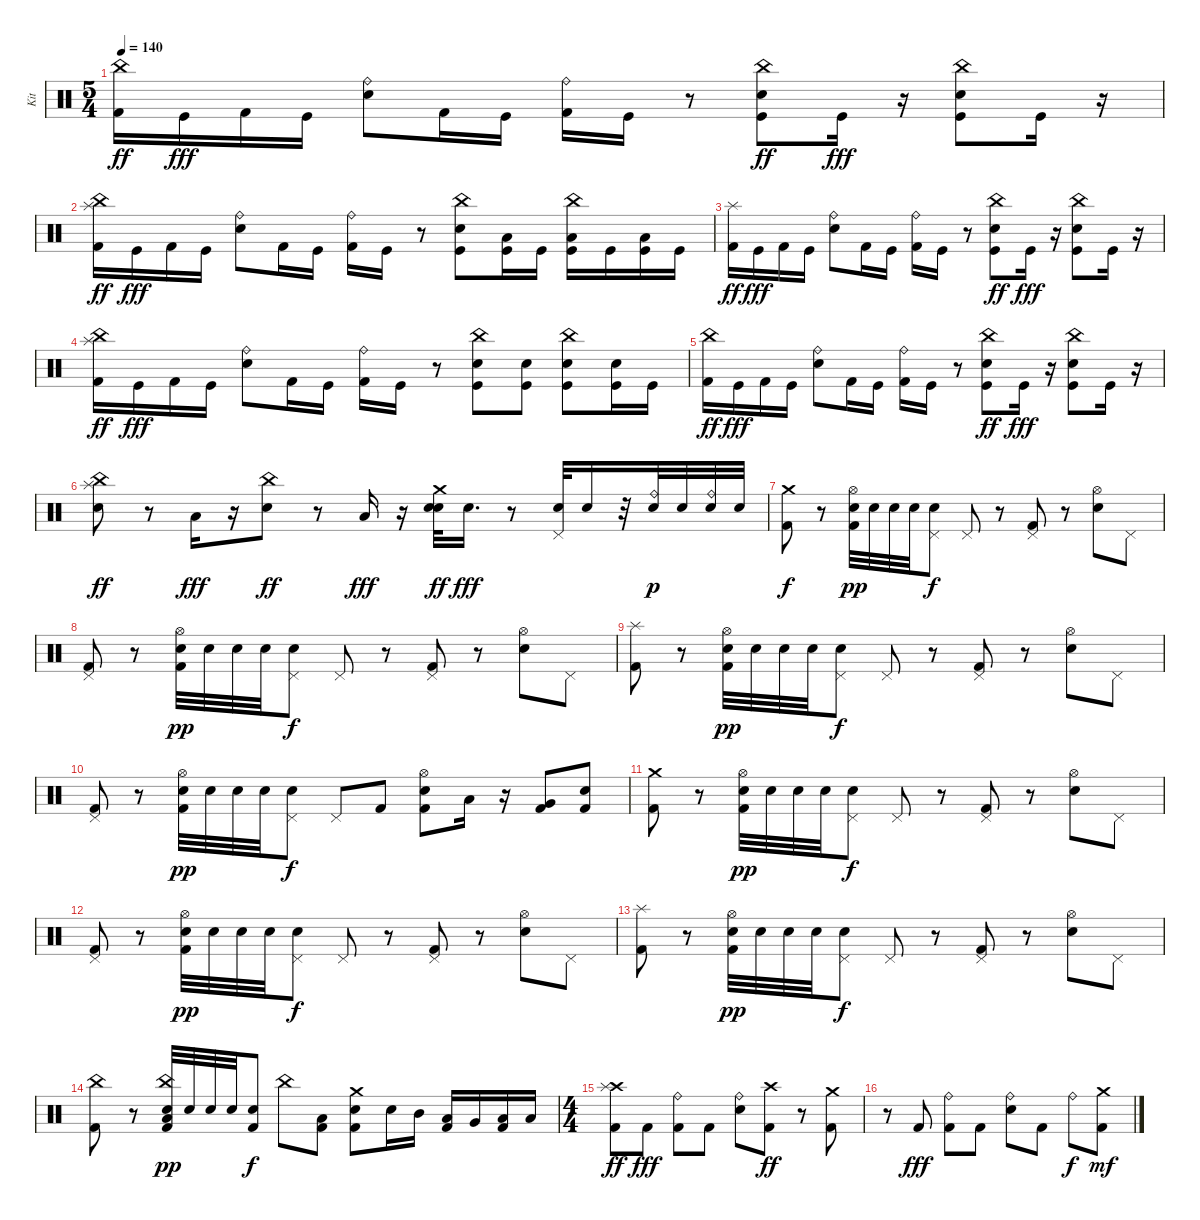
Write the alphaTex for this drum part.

\track ("Kit" "Kit") {instrument percussion}
\staff {score}
\articulation defaults
\ts (5 4)
\tempo 140
\clef neutral
\ks c
("Kick (hit) 2" "China (hit)").16{dy ff} "Kick (hit)".16{dy fff} "Kick (hit) 2".16 "Kick (hit)".16 ("Snare (hit) 2" "Ride (bell)").8 "Kick (hit) 2".16 "Kick (hit)".16 ("Kick (hit) 2" "Ride (bell)").16 "Kick (hit)".16 r.8 ("Kick (hit)" "Snare (hit) 2" "China (hit)").8{dy ff} "Kick (hit)".16{dy fff} r.16 ("Kick (hit)" "Snare (hit) 2" "China (hit)").8 "Kick (hit)".16 r.16 |
("Kick (hit) 2" "China (hit)" "Splash (hit)").16{dy ff} "Kick (hit)".16{dy fff} "Kick (hit) 2".16 "Kick (hit)".16 ("Snare (hit) 2" "Ride (bell)").8 "Kick (hit) 2".16 "Kick (hit)".16 ("Kick (hit) 2" "Ride (bell)").16 "Kick (hit)".16 r.8 ("Kick (hit)" "Snare (hit) 2" "China (hit)").8 ("Kick (hit)" "Low Floor Tom (hit)").16 "Kick (hit)".16 ("Kick (hit)" "Low Floor Tom (hit)" "China (hit)").16 "Kick (hit)".16 ("Kick (hit)" "Low Floor Tom (hit)").16 "Kick (hit)".16 |
("Kick (hit) 2" "Splash (hit)").16{dy ff} "Kick (hit)".16{dy fff} "Kick (hit) 2".16 "Kick (hit)".16 ("Snare (hit) 2" "Ride (bell)").8 "Kick (hit) 2".16 "Kick (hit)".16 ("Kick (hit) 2" "Ride (bell)").16 "Kick (hit)".16 r.8 ("Kick (hit)" "Snare (hit) 2" "China (hit)").8{dy ff} "Kick (hit)".16{dy fff} r.16 ("Kick (hit)" "Snare (hit) 2" "China (hit)").8 "Kick (hit)".16 r.16 |
("Kick (hit) 2" "China (hit)" "Splash (hit)").16{dy ff} "Kick (hit)".16{dy fff} "Kick (hit) 2".16 "Kick (hit)".16 ("Snare (hit) 2" "Ride (bell)").8 "Kick (hit) 2".16 "Kick (hit)".16 ("Kick (hit) 2" "Ride (bell)").16 "Kick (hit)".16 r.8 ("Kick (hit)" "Snare (hit) 2" "China (hit)").8 ("Kick (hit)" "Snare (hit) 2").8 ("Kick (hit)" "Snare (hit) 2" "China (hit)").8 ("Kick (hit)" "Snare (hit) 2").16 "Kick (hit)".16 |
("Kick (hit) 2" "China (hit)").16{dy ff} "Kick (hit)".16{dy fff} "Kick (hit) 2".16 "Kick (hit)".16 ("Snare (hit) 2" "Ride (bell)").8 "Kick (hit) 2".16 "Kick (hit)".16 ("Kick (hit) 2" "Ride (bell)").16 "Kick (hit)".16 r.8 ("Kick (hit)" "Snare (hit) 2" "China (hit)").8{dy ff} "Kick (hit)".16{dy fff} r.16 ("Kick (hit)" "Snare (hit) 2" "China (hit)").8 "Kick (hit)".16 r.16 |
("Snare (hit) 2" "China (hit)" "Splash (hit)").8{dy ff} r.8 "Low Floor Tom (hit)".16{dy fff} r.16 ("Snare (hit) 2" "China (hit)").8{dy ff} r.8 "Low Floor Tom (hit)".16{dy fff} r.16 ("Snare (hit) 2" "Snare (hit) 2" "Crash medium (hit)").32{dy ff} "Snare (hit) 2".16{d dy fff} r.8 ("Snare (hit) 2" "Pedal Hi-Hat (hit)").32 "Snare (hit) 2".16 r.32 ("Snare (hit) 2" "Ride (bell)").32{dy p} "Snare (hit) 2".32 ("Snare (hit) 2" "Ride (bell)").32 "Snare (hit) 2".32 |
("Kick (hit) 2" "Crash medium (hit)").8{dy f} r.8 ("Kick (hit) 2" "Snare (hit) 2" "Hi-Hat (open)").32{dy pp} "Snare (hit) 2".32 "Snare (hit) 2".32 "Snare (hit) 2".32 ("Snare (hit) 2" "Pedal Hi-Hat (hit)").8{dy f} "Pedal Hi-Hat (hit)".8 r.8 ("Kick (hit) 2" "Pedal Hi-Hat (hit)").8 r.8 ("Snare (hit) 2" "Hi-Hat (open)").8 "Pedal Hi-Hat (hit)".8 |
("Kick (hit) 2" "Pedal Hi-Hat (hit)").8 r.8 ("Kick (hit) 2" "Snare (hit) 2" "Hi-Hat (open)").32{dy pp} "Snare (hit) 2".32 "Snare (hit) 2".32 "Snare (hit) 2".32 ("Snare (hit) 2" "Pedal Hi-Hat (hit)").8{dy f} "Pedal Hi-Hat (hit)".8 r.8 ("Kick (hit) 2" "Pedal Hi-Hat (hit)").8 r.8 ("Snare (hit) 2" "Hi-Hat (open)").8 "Pedal Hi-Hat (hit)".8 |
("Kick (hit) 2" "Splash (hit)").8 r.8 ("Kick (hit) 2" "Snare (hit) 2" "Hi-Hat (open)").32{dy pp} "Snare (hit) 2".32 "Snare (hit) 2".32 "Snare (hit) 2".32 ("Snare (hit) 2" "Pedal Hi-Hat (hit)").8{dy f} "Pedal Hi-Hat (hit)".8 r.8 ("Kick (hit) 2" "Pedal Hi-Hat (hit)").8 r.8 ("Snare (hit) 2" "Hi-Hat (open)").8 "Pedal Hi-Hat (hit)".8 |
("Kick (hit) 2" "Pedal Hi-Hat (hit)").8 r.8 ("Kick (hit) 2" "Snare (hit) 2" "Hi-Hat (open)").32{dy pp} "Snare (hit) 2".32 "Snare (hit) 2".32 "Snare (hit) 2".32 ("Snare (hit) 2" "Pedal Hi-Hat (hit)").8{dy f} "Pedal Hi-Hat (hit)".8 "Kick (hit) 2".8 ("Kick (hit) 2" "Snare (hit) 2" "Hi-Hat (open)").8 "Low Tom (hit)".16 r.16 ("Kick (hit) 2" "Very Low Tom (hit)").8 ("Kick (hit) 2" "Snare (hit) 2").8 |
("Kick (hit) 2" "Crash medium (hit)").8 r.8 ("Kick (hit) 2" "Snare (hit) 2" "Hi-Hat (open)").32{dy pp} "Snare (hit) 2".32 "Snare (hit) 2".32 "Snare (hit) 2".32 ("Snare (hit) 2" "Pedal Hi-Hat (hit)").8{dy f} "Pedal Hi-Hat (hit)".8 r.8 ("Kick (hit) 2" "Pedal Hi-Hat (hit)").8 r.8 ("Snare (hit) 2" "Hi-Hat (open)").8 "Pedal Hi-Hat (hit)".8 |
("Kick (hit) 2" "Pedal Hi-Hat (hit)").8 r.8 ("Kick (hit) 2" "Snare (hit) 2" "Hi-Hat (open)").32{dy pp} "Snare (hit) 2".32 "Snare (hit) 2".32 "Snare (hit) 2".32 ("Snare (hit) 2" "Pedal Hi-Hat (hit)").8{dy f} "Pedal Hi-Hat (hit)".8 r.8 ("Kick (hit) 2" "Pedal Hi-Hat (hit)").8 r.8 ("Snare (hit) 2" "Hi-Hat (open)").8 "Pedal Hi-Hat (hit)".8 |
("Kick (hit) 2" "Splash (hit)").8 r.8 ("Kick (hit) 2" "Snare (hit) 2" "Hi-Hat (open)").32{dy pp} "Snare (hit) 2".32 "Snare (hit) 2".32 "Snare (hit) 2".32 ("Snare (hit) 2" "Pedal Hi-Hat (hit)").8{dy f} "Pedal Hi-Hat (hit)".8 r.8 ("Kick (hit) 2" "Pedal Hi-Hat (hit)").8 r.8 ("Snare (hit) 2" "Hi-Hat (open)").8 "Pedal Hi-Hat (hit)".8 |
("Kick (hit) 2" "China (hit)").8 r.8 ("Kick (hit) 2" "Snare (hit) 2" "Low Floor Tom (hit)" "China (hit)").32{dy pp} "Snare (hit) 2".32 "Snare (hit) 2".32 "Snare (hit) 2".32 ("Kick (hit) 2" "Snare (hit) 2").8{dy f} "China (hit)".8 ("Kick (hit) 2" "Low Floor Tom (hit)").8 ("Kick (hit) 2" "Snare (hit) 2" "Crash medium (hit)").8 "Snare (hit) 2".16 "Mid Tom (hit)".16 ("Kick (hit) 2" "Low Tom (hit)").16 "Very Low Tom (hit)".16 ("Kick (hit) 2" "Low Floor Tom (hit)").16 "Low Floor Tom (hit)".16 |
\ts (4 4)
("Kick (hit) 2" "Crash high (hit)" "Splash (hit)").8{dy ff} "Kick (hit) 2".8{dy fff} ("Kick (hit) 2" "Ride (bell)").8 "Kick (hit) 2".8 ("Snare (hit) 2" "Ride (bell)").8 ("Kick (hit) 2" "Crash high (hit)").8{dy ff} r.8 ("Kick (hit) 2" "Crash medium (hit)").8 |
r.8 "Kick (hit) 2".8{dy fff} ("Kick (hit) 2" "Ride (bell)").8 "Kick (hit) 2".8 ("Snare (hit) 2" "Ride (bell)").8 "Kick (hit) 2".8 "Ride (bell)".8{dy f} ("Kick (hit) 2" "Crash medium (hit)").8{dy mf}
